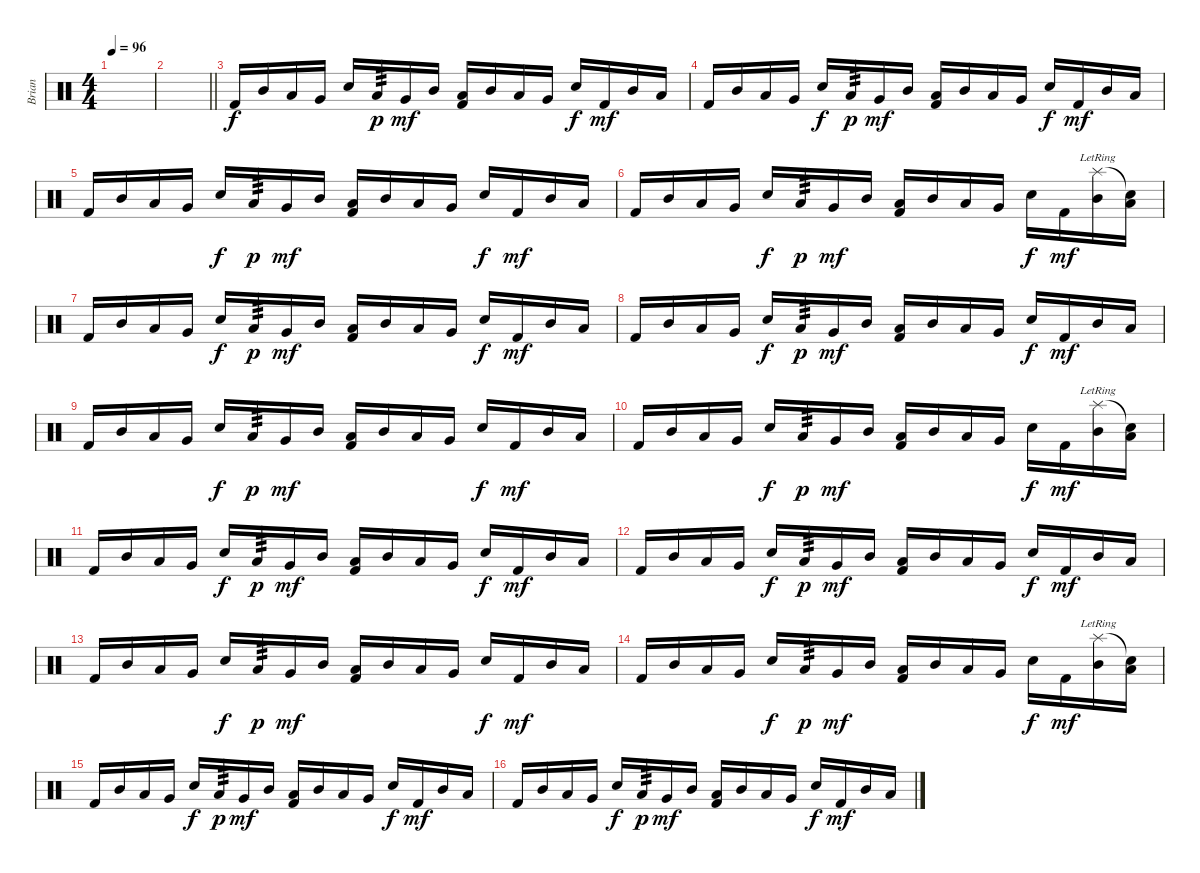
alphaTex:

\track ("Brian" "Brian") {instrument percussion}
\staff {score}
\articulation defaults
\ts (4 4)
\tempo 96
\clef neutral
\ks c
|
\barLineRight lightlight
|
"Kick (hit) 2".16 "Mid Tom (hit)".16 "Low Tom (hit)".16 "Very Low Tom (hit)".16 "Electric Snare (hit)".16{dy f} "Low Tom (hit)".16{tp 3 dy p} "Very Low Tom (hit)".16{dy mf} "Mid Tom (hit)".16 ("Low Tom (hit)" "Kick (hit) 2").16 "Mid Tom (hit)".16 "Low Tom (hit)".16 "Very Low Tom (hit)".16 "Electric Snare (hit)".16{dy f} "Kick (hit) 2".16{dy mf} "Mid Tom (hit)".16 "Low Tom (hit)".16 |
"Kick (hit) 2".16 "Mid Tom (hit)".16 "Low Tom (hit)".16 "Very Low Tom (hit)".16 "Electric Snare (hit)".16{dy f} "Low Tom (hit)".16{tp 3 dy p} "Very Low Tom (hit)".16{dy mf} "Mid Tom (hit)".16 ("Low Tom (hit)" "Kick (hit) 2").16 "Mid Tom (hit)".16 "Low Tom (hit)".16 "Very Low Tom (hit)".16 "Electric Snare (hit)".16{dy f} "Kick (hit) 2".16{dy mf} "Mid Tom (hit)".16 "Low Tom (hit)".16 |
"Kick (hit) 2".16 "Mid Tom (hit)".16 "Low Tom (hit)".16 "Very Low Tom (hit)".16 "Electric Snare (hit)".16{dy f} "Low Tom (hit)".16{tp 3 dy p} "Very Low Tom (hit)".16{dy mf} "Mid Tom (hit)".16 ("Low Tom (hit)" "Kick (hit) 2").16 "Mid Tom (hit)".16 "Low Tom (hit)".16 "Very Low Tom (hit)".16 "Electric Snare (hit)".16{dy f} "Kick (hit) 2".16{dy mf} "Mid Tom (hit)".16 "Low Tom (hit)".16 |
"Kick (hit) 2".16 "Mid Tom (hit)".16 "Low Tom (hit)".16 "Very Low Tom (hit)".16 "Electric Snare (hit)".16{dy f} "Low Tom (hit)".16{tp 3 dy p} "Very Low Tom (hit)".16{dy mf} "Mid Tom (hit)".16 ("Low Tom (hit)" "Kick (hit) 2").16 "Mid Tom (hit)".16 "Low Tom (hit)".16 "Very Low Tom (hit)".16 "Electric Snare (hit)".16{dy f} "Kick (hit) 2".16{dy mf} ("Splash (hit)"{lr} "Mid Tom (hit)").16 ("Snare (hit)"{t} "Low Tom (hit)").16 |
"Kick (hit) 2".16 "Mid Tom (hit)".16 "Low Tom (hit)".16 "Very Low Tom (hit)".16 "Electric Snare (hit)".16{dy f} "Low Tom (hit)".16{tp 3 dy p} "Very Low Tom (hit)".16{dy mf} "Mid Tom (hit)".16 ("Low Tom (hit)" "Kick (hit) 2").16 "Mid Tom (hit)".16 "Low Tom (hit)".16 "Very Low Tom (hit)".16 "Electric Snare (hit)".16{dy f} "Kick (hit) 2".16{dy mf} "Mid Tom (hit)".16 "Low Tom (hit)".16 |
"Kick (hit) 2".16 "Mid Tom (hit)".16 "Low Tom (hit)".16 "Very Low Tom (hit)".16 "Electric Snare (hit)".16{dy f} "Low Tom (hit)".16{tp 3 dy p} "Very Low Tom (hit)".16{dy mf} "Mid Tom (hit)".16 ("Low Tom (hit)" "Kick (hit) 2").16 "Mid Tom (hit)".16 "Low Tom (hit)".16 "Very Low Tom (hit)".16 "Electric Snare (hit)".16{dy f} "Kick (hit) 2".16{dy mf} "Mid Tom (hit)".16 "Low Tom (hit)".16 |
"Kick (hit) 2".16 "Mid Tom (hit)".16 "Low Tom (hit)".16 "Very Low Tom (hit)".16 "Electric Snare (hit)".16{dy f} "Low Tom (hit)".16{tp 3 dy p} "Very Low Tom (hit)".16{dy mf} "Mid Tom (hit)".16 ("Low Tom (hit)" "Kick (hit) 2").16 "Mid Tom (hit)".16 "Low Tom (hit)".16 "Very Low Tom (hit)".16 "Electric Snare (hit)".16{dy f} "Kick (hit) 2".16{dy mf} "Mid Tom (hit)".16 "Low Tom (hit)".16 |
"Kick (hit) 2".16 "Mid Tom (hit)".16 "Low Tom (hit)".16 "Very Low Tom (hit)".16 "Electric Snare (hit)".16{dy f} "Low Tom (hit)".16{tp 3 dy p} "Very Low Tom (hit)".16{dy mf} "Mid Tom (hit)".16 ("Low Tom (hit)" "Kick (hit) 2").16 "Mid Tom (hit)".16 "Low Tom (hit)".16 "Very Low Tom (hit)".16 "Electric Snare (hit)".16{dy f} "Kick (hit) 2".16{dy mf} ("Splash (hit)"{lr} "Mid Tom (hit)").16 ("Snare (hit)"{t} "Low Tom (hit)").16 |
"Kick (hit) 2".16 "Mid Tom (hit)".16 "Low Tom (hit)".16 "Very Low Tom (hit)".16 "Electric Snare (hit)".16{dy f} "Low Tom (hit)".16{tp 3 dy p} "Very Low Tom (hit)".16{dy mf} "Mid Tom (hit)".16 ("Low Tom (hit)" "Kick (hit) 2").16 "Mid Tom (hit)".16 "Low Tom (hit)".16 "Very Low Tom (hit)".16 "Electric Snare (hit)".16{dy f} "Kick (hit) 2".16{dy mf} "Mid Tom (hit)".16 "Low Tom (hit)".16 |
"Kick (hit) 2".16 "Mid Tom (hit)".16 "Low Tom (hit)".16 "Very Low Tom (hit)".16 "Electric Snare (hit)".16{dy f} "Low Tom (hit)".16{tp 3 dy p} "Very Low Tom (hit)".16{dy mf} "Mid Tom (hit)".16 ("Low Tom (hit)" "Kick (hit) 2").16 "Mid Tom (hit)".16 "Low Tom (hit)".16 "Very Low Tom (hit)".16 "Electric Snare (hit)".16{dy f} "Kick (hit) 2".16{dy mf} "Mid Tom (hit)".16 "Low Tom (hit)".16 |
"Kick (hit) 2".16 "Mid Tom (hit)".16 "Low Tom (hit)".16 "Very Low Tom (hit)".16 "Electric Snare (hit)".16{dy f} "Low Tom (hit)".16{tp 3 dy p} "Very Low Tom (hit)".16{dy mf} "Mid Tom (hit)".16 ("Low Tom (hit)" "Kick (hit) 2").16 "Mid Tom (hit)".16 "Low Tom (hit)".16 "Very Low Tom (hit)".16 "Electric Snare (hit)".16{dy f} "Kick (hit) 2".16{dy mf} "Mid Tom (hit)".16 "Low Tom (hit)".16 |
"Kick (hit) 2".16 "Mid Tom (hit)".16 "Low Tom (hit)".16 "Very Low Tom (hit)".16 "Electric Snare (hit)".16{dy f} "Low Tom (hit)".16{tp 3 dy p} "Very Low Tom (hit)".16{dy mf} "Mid Tom (hit)".16 ("Low Tom (hit)" "Kick (hit) 2").16 "Mid Tom (hit)".16 "Low Tom (hit)".16 "Very Low Tom (hit)".16 "Electric Snare (hit)".16{dy f} "Kick (hit) 2".16{dy mf} ("Splash (hit)"{lr} "Mid Tom (hit)").16 ("Snare (hit)"{t} "Low Tom (hit)").16 |
"Kick (hit) 2".16 "Mid Tom (hit)".16 "Low Tom (hit)".16 "Very Low Tom (hit)".16 "Electric Snare (hit)".16{dy f} "Low Tom (hit)".16{tp 3 dy p} "Very Low Tom (hit)".16{dy mf} "Mid Tom (hit)".16 ("Low Tom (hit)" "Kick (hit) 2").16 "Mid Tom (hit)".16 "Low Tom (hit)".16 "Very Low Tom (hit)".16 "Electric Snare (hit)".16{dy f} "Kick (hit) 2".16{dy mf} "Mid Tom (hit)".16 "Low Tom (hit)".16 |
"Kick (hit) 2".16 "Mid Tom (hit)".16 "Low Tom (hit)".16 "Very Low Tom (hit)".16 "Electric Snare (hit)".16{dy f} "Low Tom (hit)".16{tp 3 dy p} "Very Low Tom (hit)".16{dy mf} "Mid Tom (hit)".16 ("Low Tom (hit)" "Kick (hit) 2").16 "Mid Tom (hit)".16 "Low Tom (hit)".16 "Very Low Tom (hit)".16 "Electric Snare (hit)".16{dy f} "Kick (hit) 2".16{dy mf} "Mid Tom (hit)".16 "Low Tom (hit)".16
